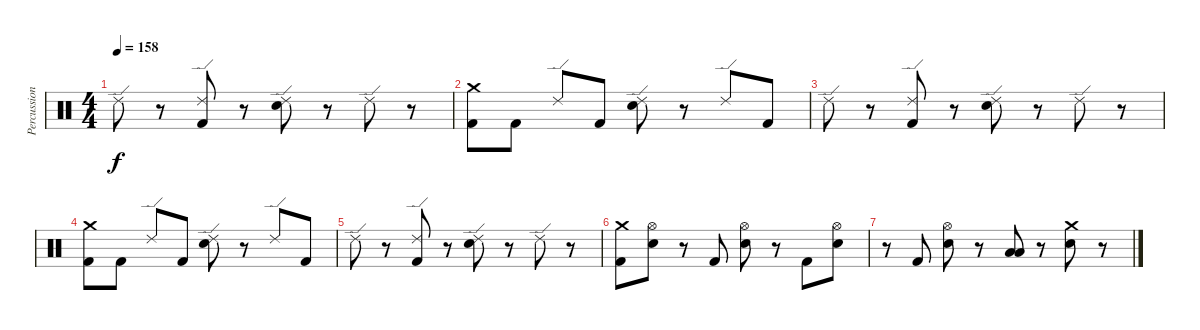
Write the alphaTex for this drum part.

\track ("Percussion" "Percussion") {instrument percussion}
\staff {score}
\articulation defaults
\ts (4 4)
\tempo 158
\clef neutral
\ks c "Ride (edge) 2".8{dy f}
r.8 ("Ride (edge) 2" "Kick (hit) 2").8 r.8 ("Ride (edge) 2" "Electric Snare (hit)").8 r.8 "Ride (edge) 2".8 r.8 |
("Crash medium (hit)" "Kick (hit) 2").8 "Kick (hit) 2".8 "Ride (edge) 2".8 "Kick (hit) 2".8 ("Ride (edge) 2" "Electric Snare (hit)").8 r.8 "Ride (edge) 2".8 "Kick (hit) 2".8 |
"Ride (edge) 2".8 r.8 ("Ride (edge) 2" "Kick (hit) 2").8 r.8 ("Ride (edge) 2" "Electric Snare (hit)").8 r.8 "Ride (edge) 2".8 r.8 |
("Crash medium (hit)" "Kick (hit) 2").8 "Kick (hit) 2".8 "Ride (edge) 2".8 "Kick (hit) 2".8 ("Ride (edge) 2" "Electric Snare (hit)").8 r.8 "Ride (edge) 2".8 "Kick (hit) 2".8 |
"Ride (edge) 2".8 r.8 ("Ride (edge) 2" "Kick (hit) 2").8 r.8 ("Ride (edge) 2" "Electric Snare (hit)").8 r.8 "Ride (edge) 2".8 r.8 |
("Crash medium (hit)" "Kick (hit) 2").8 ("Hi-Hat (open)" "Electric Snare (hit)").8 r.8 "Kick (hit) 2".8 ("Hi-Hat (open)" "Electric Snare (hit)").8 r.8 "Kick (hit) 2".8 ("Hi-Hat (open)" "Electric Snare (hit)").8 |
r.8 "Kick (hit) 2".8 ("Hi-Hat (open)" "Electric Snare (hit)").8 r.8 ("Low Tom (hit)" "Low Tom (hit)").8 r.8 ("Crash medium (hit)" "Electric Snare (hit)").8 r.8
